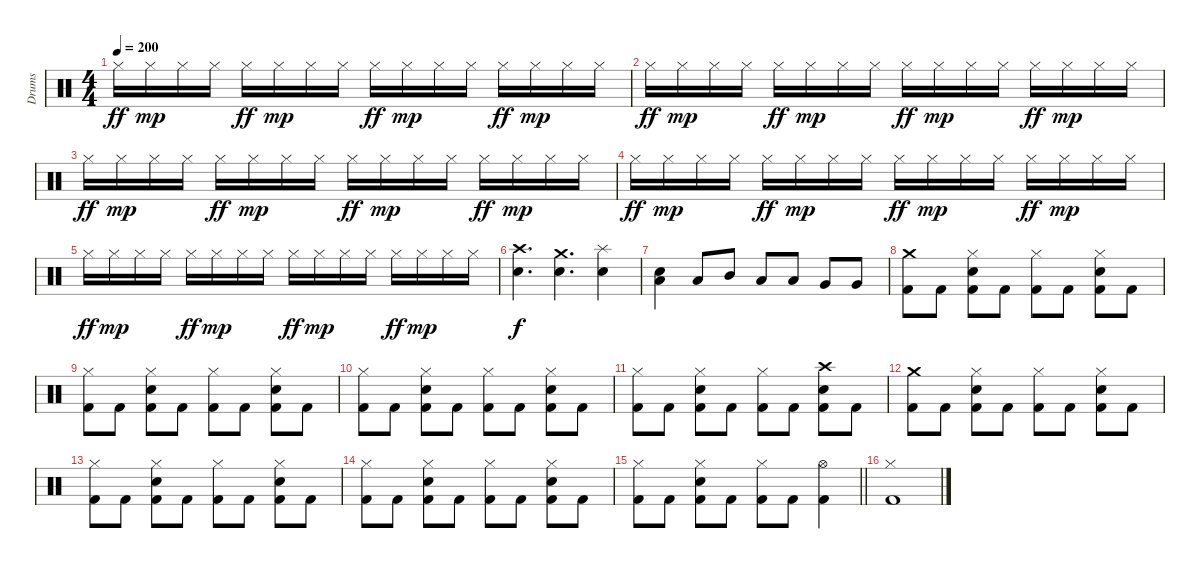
\track ("Drums" "Drums") {instrument percussion}
\staff {score}
\articulation defaults
\ts (4 4)
\tempo 200
\clef neutral
\ks c "Hi-Hat (closed)".16{dy ff} "Hi-Hat (closed)".16{dy mp} "Hi-Hat (closed)".16 "Hi-Hat (closed)".16 "Hi-Hat (closed)".16{dy ff} "Hi-Hat (closed)".16{dy mp} "Hi-Hat (closed)".16 "Hi-Hat (closed)".16 "Hi-Hat (closed)".16{dy ff} "Hi-Hat (closed)".16{dy mp} "Hi-Hat (closed)".16 "Hi-Hat (closed)".16 "Hi-Hat (closed)".16{dy ff} "Hi-Hat (closed)".16{dy mp} "Hi-Hat (closed)".16 "Hi-Hat (closed)".16
|
"Hi-Hat (closed)".16{dy ff} "Hi-Hat (closed)".16{dy mp} "Hi-Hat (closed)".16 "Hi-Hat (closed)".16 "Hi-Hat (closed)".16{dy ff} "Hi-Hat (closed)".16{dy mp} "Hi-Hat (closed)".16 "Hi-Hat (closed)".16 "Hi-Hat (closed)".16{dy ff} "Hi-Hat (closed)".16{dy mp} "Hi-Hat (closed)".16 "Hi-Hat (closed)".16 "Hi-Hat (closed)".16{dy ff} "Hi-Hat (closed)".16{dy mp} "Hi-Hat (closed)".16 "Hi-Hat (closed)".16 |
"Hi-Hat (closed)".16{dy ff} "Hi-Hat (closed)".16{dy mp} "Hi-Hat (closed)".16 "Hi-Hat (closed)".16 "Hi-Hat (closed)".16{dy ff} "Hi-Hat (closed)".16{dy mp} "Hi-Hat (closed)".16 "Hi-Hat (closed)".16 "Hi-Hat (closed)".16{dy ff} "Hi-Hat (closed)".16{dy mp} "Hi-Hat (closed)".16 "Hi-Hat (closed)".16 "Hi-Hat (closed)".16{dy ff} "Hi-Hat (closed)".16{dy mp} "Hi-Hat (closed)".16 "Hi-Hat (closed)".16 |
"Hi-Hat (closed)".16{dy ff} "Hi-Hat (closed)".16{dy mp} "Hi-Hat (closed)".16 "Hi-Hat (closed)".16 "Hi-Hat (closed)".16{dy ff} "Hi-Hat (closed)".16{dy mp} "Hi-Hat (closed)".16 "Hi-Hat (closed)".16 "Hi-Hat (closed)".16{dy ff} "Hi-Hat (closed)".16{dy mp} "Hi-Hat (closed)".16 "Hi-Hat (closed)".16 "Hi-Hat (closed)".16{dy ff} "Hi-Hat (closed)".16{dy mp} "Hi-Hat (closed)".16 "Hi-Hat (closed)".16 |
"Hi-Hat (closed)".16{dy ff} "Hi-Hat (closed)".16{dy mp} "Hi-Hat (closed)".16 "Hi-Hat (closed)".16 "Hi-Hat (closed)".16{dy ff} "Hi-Hat (closed)".16{dy mp} "Hi-Hat (closed)".16 "Hi-Hat (closed)".16 "Hi-Hat (closed)".16{dy ff} "Hi-Hat (closed)".16{dy mp} "Hi-Hat (closed)".16 "Hi-Hat (closed)".16 "Hi-Hat (closed)".16{dy ff} "Hi-Hat (closed)".16{dy mp} "Hi-Hat (closed)".16 "Hi-Hat (closed)".16 |
("Crash high (hit)" "Snare (hit) 2").4{d dy f} ("Crash medium (hit)" "Snare (hit) 2").4{d} ("Splash (hit)" "Snare (hit) 2").4 |
("Low Tom (hit)" "Snare (hit) 2").4 "Low Tom (hit)".8 "Mid Tom (hit)".8 "Low Tom (hit)".8 "Low Tom (hit)".8 "Very Low Tom (hit)".8 "Very Low Tom (hit)".8 |
("Crash medium (hit)" "Kick (hit) 2").8 "Kick (hit) 2".8 ("Hi-Hat (closed)" "Snare (hit) 2" "Kick (hit) 2").8 "Kick (hit) 2".8 ("Hi-Hat (closed)" "Kick (hit) 2").8 "Kick (hit) 2".8 ("Hi-Hat (closed)" "Snare (hit) 2" "Kick (hit) 2").8 "Kick (hit) 2".8 |
("Hi-Hat (closed)" "Kick (hit) 2").8 "Kick (hit) 2".8 ("Hi-Hat (closed)" "Snare (hit) 2" "Kick (hit) 2").8 "Kick (hit) 2".8 ("Hi-Hat (closed)" "Kick (hit) 2").8 "Kick (hit) 2".8 ("Hi-Hat (closed)" "Snare (hit) 2" "Kick (hit) 2").8 "Kick (hit) 2".8 |
("Hi-Hat (closed)" "Kick (hit) 2").8 "Kick (hit) 2".8 ("Hi-Hat (closed)" "Snare (hit) 2" "Kick (hit) 2").8 "Kick (hit) 2".8 ("Hi-Hat (closed)" "Kick (hit) 2").8 "Kick (hit) 2".8 ("Hi-Hat (closed)" "Snare (hit) 2" "Kick (hit) 2").8 "Kick (hit) 2".8 |
("Hi-Hat (closed)" "Kick (hit) 2").8 "Kick (hit) 2".8 ("Hi-Hat (closed)" "Snare (hit) 2" "Kick (hit) 2").8 "Kick (hit) 2".8 ("Hi-Hat (closed)" "Kick (hit) 2").8 "Kick (hit) 2".8 ("Crash high (hit)" "Snare (hit) 2" "Kick (hit) 2").8 "Kick (hit) 2".8 |
("Crash medium (hit)" "Kick (hit) 2").8 "Kick (hit) 2".8 ("Hi-Hat (closed)" "Snare (hit) 2" "Kick (hit) 2").8 "Kick (hit) 2".8 ("Hi-Hat (closed)" "Kick (hit) 2").8 "Kick (hit) 2".8 ("Hi-Hat (closed)" "Snare (hit) 2" "Kick (hit) 2").8 "Kick (hit) 2".8 |
("Hi-Hat (closed)" "Kick (hit) 2").8 "Kick (hit) 2".8 ("Hi-Hat (closed)" "Snare (hit) 2" "Kick (hit) 2").8 "Kick (hit) 2".8 ("Hi-Hat (closed)" "Kick (hit) 2").8 "Kick (hit) 2".8 ("Hi-Hat (closed)" "Snare (hit) 2" "Kick (hit) 2").8 "Kick (hit) 2".8 |
("Hi-Hat (closed)" "Kick (hit) 2").8 "Kick (hit) 2".8 ("Hi-Hat (closed)" "Snare (hit) 2" "Kick (hit) 2").8 "Kick (hit) 2".8 ("Hi-Hat (closed)" "Kick (hit) 2").8 "Kick (hit) 2".8 ("Hi-Hat (closed)" "Snare (hit) 2" "Kick (hit) 2").8 "Kick (hit) 2".8 |
\barLineRight lightlight
("Hi-Hat (closed)" "Kick (hit) 2").8 "Kick (hit) 2".8 ("Hi-Hat (closed)" "Snare (hit) 2" "Kick (hit) 2").8 "Kick (hit) 2".8 ("Hi-Hat (closed)" "Kick (hit) 2").8 "Kick (hit) 2".8 ("Hi-Hat (open)" "Kick (hit) 2").4 |
("Hi-Hat (closed)" "Kick (hit) 2").1
